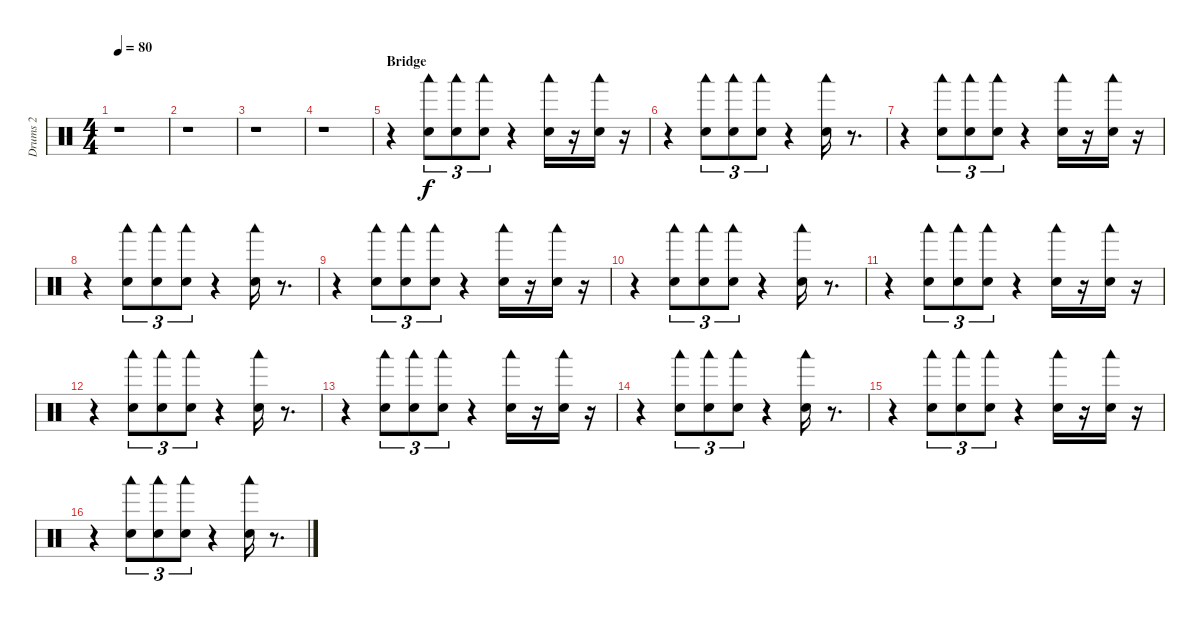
\track ("Drums 2" "Drums 2") {instrument percussion}
\staff {score}
\articulation defaults
\ts (4 4)
\tempo 80
\clef neutral
\ks c
r.1{dy f} |
r.1 |
r.1 |
r.1 |
\section ("" "Bridge")
r.4 ("Woodblock low (hit)" "Electric Snare (hit)").8{tu (3 2)} ("Woodblock low (hit)" "Electric Snare (hit)").8{tu (3 2)} ("Woodblock low (hit)" "Electric Snare (hit)").8{tu (3 2)} r.4 ("Woodblock low (hit)" "Electric Snare (hit)").16 r.16 ("Woodblock low (hit)" "Electric Snare (hit)").16 r.16 |
r.4 ("Woodblock low (hit)" "Electric Snare (hit)").8{tu (3 2)} ("Woodblock low (hit)" "Electric Snare (hit)").8{tu (3 2)} ("Woodblock low (hit)" "Electric Snare (hit)").8{tu (3 2)} r.4 ("Woodblock low (hit)" "Electric Snare (hit)").16 r.8{d} |
r.4 ("Woodblock low (hit)" "Electric Snare (hit)").8{tu (3 2)} ("Woodblock low (hit)" "Electric Snare (hit)").8{tu (3 2)} ("Woodblock low (hit)" "Electric Snare (hit)").8{tu (3 2)} r.4 ("Woodblock low (hit)" "Electric Snare (hit)").16 r.16 ("Woodblock low (hit)" "Electric Snare (hit)").16 r.16 |
r.4 ("Woodblock low (hit)" "Electric Snare (hit)").8{tu (3 2)} ("Woodblock low (hit)" "Electric Snare (hit)").8{tu (3 2)} ("Woodblock low (hit)" "Electric Snare (hit)").8{tu (3 2)} r.4 ("Woodblock low (hit)" "Electric Snare (hit)").16 r.8{d} |
r.4 ("Woodblock low (hit)" "Electric Snare (hit)").8{tu (3 2)} ("Woodblock low (hit)" "Electric Snare (hit)").8{tu (3 2)} ("Woodblock low (hit)" "Electric Snare (hit)").8{tu (3 2)} r.4 ("Woodblock low (hit)" "Electric Snare (hit)").16 r.16 ("Woodblock low (hit)" "Electric Snare (hit)").16 r.16 |
r.4 ("Woodblock low (hit)" "Electric Snare (hit)").8{tu (3 2)} ("Woodblock low (hit)" "Electric Snare (hit)").8{tu (3 2)} ("Woodblock low (hit)" "Electric Snare (hit)").8{tu (3 2)} r.4 ("Woodblock low (hit)" "Electric Snare (hit)").16 r.8{d} |
r.4 ("Woodblock low (hit)" "Electric Snare (hit)").8{tu (3 2)} ("Woodblock low (hit)" "Electric Snare (hit)").8{tu (3 2)} ("Woodblock low (hit)" "Electric Snare (hit)").8{tu (3 2)} r.4 ("Woodblock low (hit)" "Electric Snare (hit)").16 r.16 ("Woodblock low (hit)" "Electric Snare (hit)").16 r.16 |
r.4 ("Woodblock low (hit)" "Electric Snare (hit)").8{tu (3 2)} ("Woodblock low (hit)" "Electric Snare (hit)").8{tu (3 2)} ("Woodblock low (hit)" "Electric Snare (hit)").8{tu (3 2)} r.4 ("Woodblock low (hit)" "Electric Snare (hit)").16 r.8{d} |
r.4 ("Woodblock low (hit)" "Electric Snare (hit)").8{tu (3 2)} ("Woodblock low (hit)" "Electric Snare (hit)").8{tu (3 2)} ("Woodblock low (hit)" "Electric Snare (hit)").8{tu (3 2)} r.4 ("Woodblock low (hit)" "Electric Snare (hit)").16 r.16 ("Woodblock low (hit)" "Electric Snare (hit)").16 r.16 |
r.4 ("Woodblock low (hit)" "Electric Snare (hit)").8{tu (3 2)} ("Woodblock low (hit)" "Electric Snare (hit)").8{tu (3 2)} ("Woodblock low (hit)" "Electric Snare (hit)").8{tu (3 2)} r.4 ("Woodblock low (hit)" "Electric Snare (hit)").16 r.8{d} |
r.4 ("Woodblock low (hit)" "Electric Snare (hit)").8{tu (3 2)} ("Woodblock low (hit)" "Electric Snare (hit)").8{tu (3 2)} ("Woodblock low (hit)" "Electric Snare (hit)").8{tu (3 2)} r.4 ("Woodblock low (hit)" "Electric Snare (hit)").16 r.16 ("Woodblock low (hit)" "Electric Snare (hit)").16 r.16 |
r.4 ("Woodblock low (hit)" "Electric Snare (hit)").8{tu (3 2)} ("Woodblock low (hit)" "Electric Snare (hit)").8{tu (3 2)} ("Woodblock low (hit)" "Electric Snare (hit)").8{tu (3 2)} r.4 ("Woodblock low (hit)" "Electric Snare (hit)").16 r.8{d}
